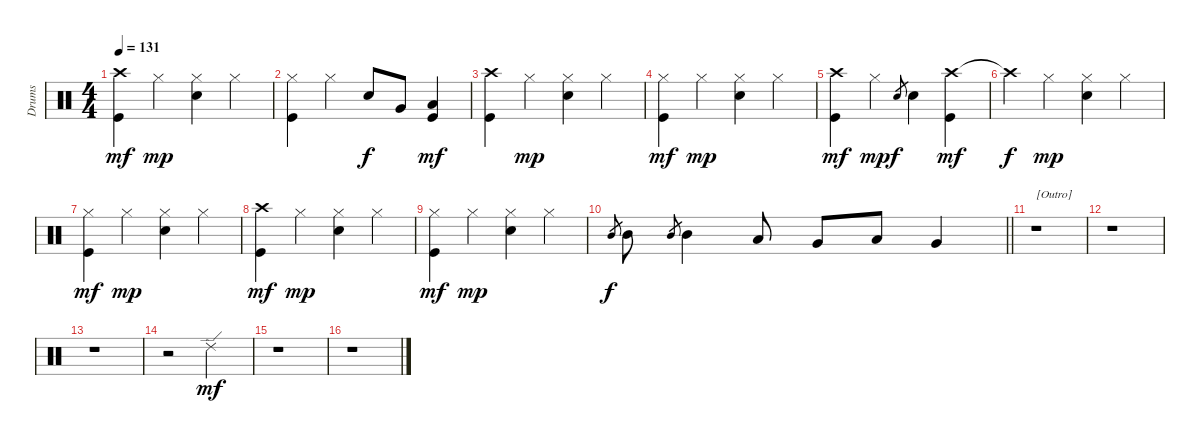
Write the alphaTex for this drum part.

\track ("Drums" "Drums") {instrument percussion}
\staff {score}
\articulation defaults
\ts (4 4)
\tempo 131
\clef neutral
\ks c
("Crash high (hit)" "Kick (hit)").4{dy mf} "Hi-Hat (closed)".4{dy mp} ("Hi-Hat (closed)" "Snare (hit) 2").4 "Hi-Hat (closed)".4 |
("Hi-Hat (closed)" "Kick (hit)").4 "Hi-Hat (closed)".4 "Snare (hit) 2".8{dy f} "Very Low Tom (hit)".8 ("Low Floor Tom (hit)" "Kick (hit)").4{dy mf} |
("Crash high (hit)" "Kick (hit)").4 "Hi-Hat (closed)".4{dy mp} ("Hi-Hat (closed)" "Snare (hit) 2").4 "Hi-Hat (closed)".4 |
("Hi-Hat (closed)" "Kick (hit)").4{dy mf} "Hi-Hat (closed)".4{dy mp} ("Hi-Hat (closed)" "Snare (hit) 2").4 "Hi-Hat (closed)".4 |
("Crash high (hit)" "Kick (hit)").4{dy mf} "Hi-Hat (closed)".4{dy mp} "Snare (hit) 2".8{gr dy f} "Snare (hit) 2".4 ("Crash high (hit)" "Kick (hit)").4{dy mf} |
"Crash high (hit)"{t}.4{dy f} "Hi-Hat (closed)".4{dy mp} ("Hi-Hat (closed)" "Snare (hit) 2").4 "Hi-Hat (closed)".4 |
("Hi-Hat (closed)" "Kick (hit)").4{dy mf} "Hi-Hat (closed)".4{dy mp} ("Hi-Hat (closed)" "Snare (hit) 2").4 "Hi-Hat (closed)".4 |
("Crash high (hit)" "Kick (hit)").4{dy mf} "Hi-Hat (closed)".4{dy mp} ("Hi-Hat (closed)" "Snare (hit) 2").4 "Hi-Hat (closed)".4 |
("Hi-Hat (closed)" "Kick (hit)").4{dy mf} "Hi-Hat (closed)".4{dy mp} ("Hi-Hat (closed)" "Snare (hit) 2").4 "Hi-Hat (closed)".4 |
\barLineRight lightlight "Mid Tom (hit)".8{gr dy f} "Mid Tom (hit)".8 "Mid Tom (hit)".8{gr} "Mid Tom (hit)".4 "Low Tom (hit)".8 "Very Low Tom (hit)".8 "Low Floor Tom (hit)".8 "Very Low Tom (hit)".4
|
r.1{txt "[Outro]"} |
r.1 |
r.1 |
r.2 "Ride (edge) 2".2{dy mf} |
r.1 |
r.1
